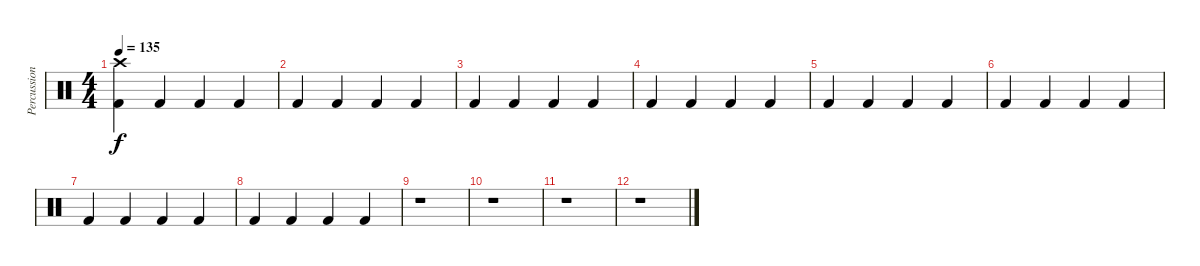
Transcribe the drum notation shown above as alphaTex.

\track ("Percussion" "Percussion") {instrument percussion}
\staff {score}
\articulation defaults
\ts (4 4)
\tempo 135
\clef neutral
\ks c
("Kick (hit) 2" "Crash high (hit)").4{dy f} "Kick (hit) 2".4 "Kick (hit) 2".4 "Kick (hit) 2".4 |
"Kick (hit) 2".4 "Kick (hit) 2".4 "Kick (hit) 2".4 "Kick (hit) 2".4 |
"Kick (hit) 2".4 "Kick (hit) 2".4 "Kick (hit) 2".4 "Kick (hit) 2".4 |
"Kick (hit) 2".4 "Kick (hit) 2".4 "Kick (hit) 2".4 "Kick (hit) 2".4 |
"Kick (hit) 2".4 "Kick (hit) 2".4 "Kick (hit) 2".4 "Kick (hit) 2".4 |
"Kick (hit) 2".4 "Kick (hit) 2".4 "Kick (hit) 2".4 "Kick (hit) 2".4 |
"Kick (hit) 2".4 "Kick (hit) 2".4 "Kick (hit) 2".4 "Kick (hit) 2".4 |
"Kick (hit) 2".4 "Kick (hit) 2".4 "Kick (hit) 2".4 "Kick (hit) 2".4 |
r.1 |
r.1 |
r.1 |
r.1
